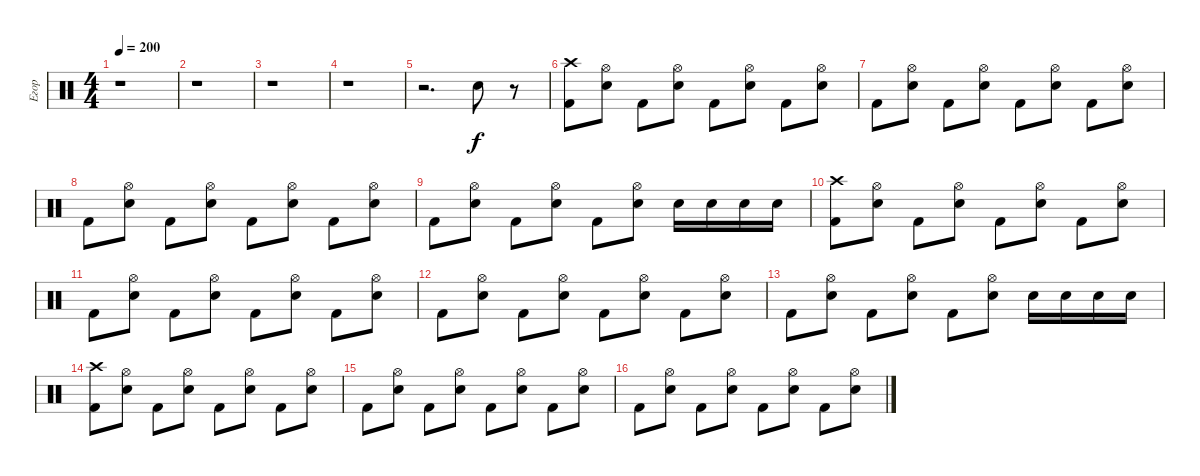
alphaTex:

\track ("Егор" "Егор") {instrument percussion}
\staff {score}
\articulation defaults
\ts (4 4)
\tempo 200
\clef neutral
\ks c
r.1{dy f} |
r.1 |
r.1 |
r.1 |
r.2{d} "Snare (hit) 2".8 r.8 |
("Crash high (hit)" "Kick (hit) 2").8 ("Hi-Hat (open)" "Snare (hit) 2").8 "Kick (hit) 2".8 ("Hi-Hat (open)" "Snare (hit) 2").8 "Kick (hit) 2".8 ("Hi-Hat (open)" "Snare (hit) 2").8 "Kick (hit) 2".8 ("Hi-Hat (open)" "Snare (hit) 2").8 |
"Kick (hit) 2".8 ("Hi-Hat (open)" "Snare (hit) 2").8 "Kick (hit) 2".8 ("Hi-Hat (open)" "Snare (hit) 2").8 "Kick (hit) 2".8 ("Hi-Hat (open)" "Snare (hit) 2").8 "Kick (hit) 2".8 ("Hi-Hat (open)" "Snare (hit) 2").8 |
"Kick (hit) 2".8 ("Hi-Hat (open)" "Snare (hit) 2").8 "Kick (hit) 2".8 ("Hi-Hat (open)" "Snare (hit) 2").8 "Kick (hit) 2".8 ("Hi-Hat (open)" "Snare (hit) 2").8 "Kick (hit) 2".8 ("Hi-Hat (open)" "Snare (hit) 2").8 |
"Kick (hit) 2".8 ("Hi-Hat (open)" "Snare (hit) 2").8 "Kick (hit) 2".8 ("Hi-Hat (open)" "Snare (hit) 2").8 "Kick (hit) 2".8 ("Hi-Hat (open)" "Snare (hit) 2").8 "Snare (hit) 2".16 "Snare (hit) 2".16 "Snare (hit) 2".16 "Snare (hit) 2".16 |
("Crash high (hit)" "Kick (hit) 2").8 ("Hi-Hat (open)" "Snare (hit) 2").8 "Kick (hit) 2".8 ("Hi-Hat (open)" "Snare (hit) 2").8 "Kick (hit) 2".8 ("Hi-Hat (open)" "Snare (hit) 2").8 "Kick (hit) 2".8 ("Hi-Hat (open)" "Snare (hit) 2").8 |
"Kick (hit) 2".8 ("Hi-Hat (open)" "Snare (hit) 2").8 "Kick (hit) 2".8 ("Hi-Hat (open)" "Snare (hit) 2").8 "Kick (hit) 2".8 ("Hi-Hat (open)" "Snare (hit) 2").8 "Kick (hit) 2".8 ("Hi-Hat (open)" "Snare (hit) 2").8 |
"Kick (hit) 2".8 ("Hi-Hat (open)" "Snare (hit) 2").8 "Kick (hit) 2".8 ("Hi-Hat (open)" "Snare (hit) 2").8 "Kick (hit) 2".8 ("Hi-Hat (open)" "Snare (hit) 2").8 "Kick (hit) 2".8 ("Hi-Hat (open)" "Snare (hit) 2").8 |
"Kick (hit) 2".8 ("Hi-Hat (open)" "Snare (hit) 2").8 "Kick (hit) 2".8 ("Hi-Hat (open)" "Snare (hit) 2").8 "Kick (hit) 2".8 ("Hi-Hat (open)" "Snare (hit) 2").8 "Snare (hit) 2".16 "Snare (hit) 2".16 "Snare (hit) 2".16 "Snare (hit) 2".16 |
("Crash high (hit)" "Kick (hit) 2").8 ("Hi-Hat (open)" "Snare (hit) 2").8 "Kick (hit) 2".8 ("Hi-Hat (open)" "Snare (hit) 2").8 "Kick (hit) 2".8 ("Hi-Hat (open)" "Snare (hit) 2").8 "Kick (hit) 2".8 ("Hi-Hat (open)" "Snare (hit) 2").8 |
"Kick (hit) 2".8 ("Hi-Hat (open)" "Snare (hit) 2").8 "Kick (hit) 2".8 ("Hi-Hat (open)" "Snare (hit) 2").8 "Kick (hit) 2".8 ("Hi-Hat (open)" "Snare (hit) 2").8 "Kick (hit) 2".8 ("Hi-Hat (open)" "Snare (hit) 2").8 |
"Kick (hit) 2".8 ("Hi-Hat (open)" "Snare (hit) 2").8 "Kick (hit) 2".8 ("Hi-Hat (open)" "Snare (hit) 2").8 "Kick (hit) 2".8 ("Hi-Hat (open)" "Snare (hit) 2").8 "Kick (hit) 2".8 ("Hi-Hat (open)" "Snare (hit) 2").8
